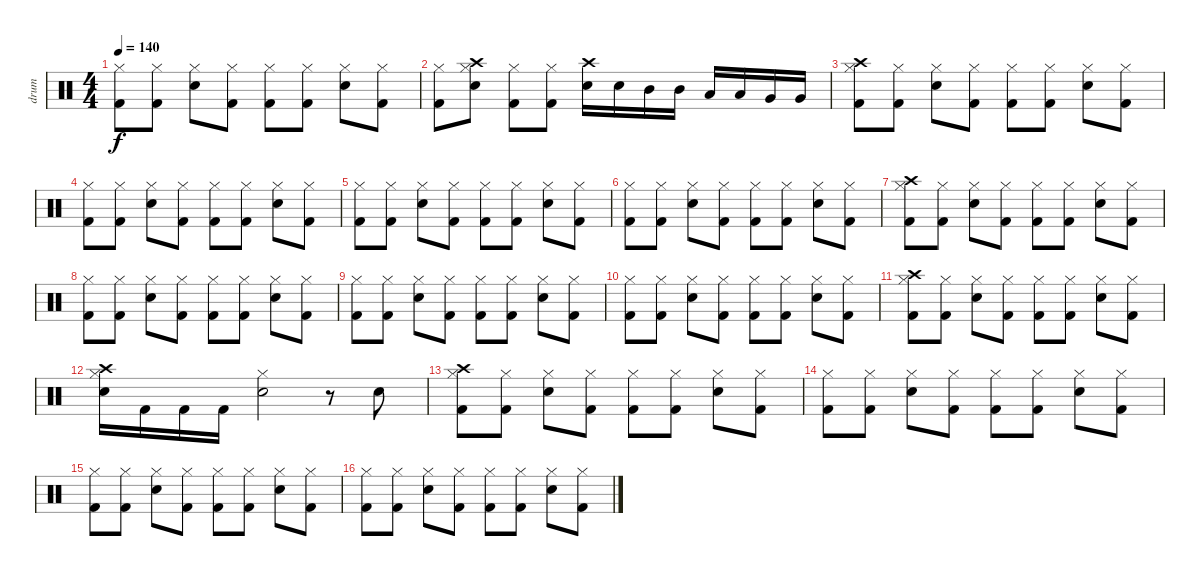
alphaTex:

\track ("drum" "drum") {instrument percussion}
\staff {score}
\articulation defaults
\ts (4 4)
\tempo 140
\clef neutral
\ks c
("Hi-Hat (closed)" "Kick (hit) 2").8{dy f} ("Hi-Hat (closed)" "Kick (hit) 2").8 ("Hi-Hat (closed)" "Electric Snare (hit)").8 ("Hi-Hat (closed)" "Kick (hit) 2").8 ("Hi-Hat (closed)" "Kick (hit) 2").8 ("Hi-Hat (closed)" "Kick (hit) 2").8 ("Hi-Hat (closed)" "Electric Snare (hit)").8 ("Hi-Hat (closed)" "Kick (hit) 2").8 |
("Hi-Hat (closed)" "Kick (hit) 2").8 ("Crash high (hit)" "Hi-Hat (closed)" "Electric Snare (hit)").8 ("Hi-Hat (closed)" "Kick (hit) 2").8 ("Hi-Hat (closed)" "Kick (hit) 2").8 ("Crash high (hit)" "Electric Snare (hit)").16 "Electric Snare (hit)".16 "Mid Tom (hit)".16 "Mid Tom (hit)".16 "Low Tom (hit)".16 "Low Tom (hit)".16 "Very Low Tom (hit)".16 "Very Low Tom (hit)".16 |
("Crash high (hit)" "Hi-Hat (closed)" "Kick (hit) 2").8 ("Hi-Hat (closed)" "Kick (hit) 2").8 ("Hi-Hat (closed)" "Electric Snare (hit)").8 ("Hi-Hat (closed)" "Kick (hit) 2").8 ("Hi-Hat (closed)" "Kick (hit) 2").8 ("Hi-Hat (closed)" "Kick (hit) 2").8 ("Hi-Hat (closed)" "Electric Snare (hit)").8 ("Hi-Hat (closed)" "Kick (hit) 2").8 |
("Hi-Hat (closed)" "Kick (hit) 2").8 ("Hi-Hat (closed)" "Kick (hit) 2").8 ("Hi-Hat (closed)" "Electric Snare (hit)").8 ("Hi-Hat (closed)" "Kick (hit) 2").8 ("Hi-Hat (closed)" "Kick (hit) 2").8 ("Hi-Hat (closed)" "Kick (hit) 2").8 ("Hi-Hat (closed)" "Electric Snare (hit)").8 ("Hi-Hat (closed)" "Kick (hit) 2").8 |
("Hi-Hat (closed)" "Kick (hit) 2").8 ("Hi-Hat (closed)" "Kick (hit) 2").8 ("Hi-Hat (closed)" "Electric Snare (hit)").8 ("Hi-Hat (closed)" "Kick (hit) 2").8 ("Hi-Hat (closed)" "Kick (hit) 2").8 ("Hi-Hat (closed)" "Kick (hit) 2").8 ("Hi-Hat (closed)" "Electric Snare (hit)").8 ("Hi-Hat (closed)" "Kick (hit) 2").8 |
("Hi-Hat (closed)" "Kick (hit) 2").8 ("Hi-Hat (closed)" "Kick (hit) 2").8 ("Hi-Hat (closed)" "Electric Snare (hit)").8 ("Hi-Hat (closed)" "Kick (hit) 2").8 ("Hi-Hat (closed)" "Kick (hit) 2").8 ("Hi-Hat (closed)" "Kick (hit) 2").8 ("Hi-Hat (closed)" "Electric Snare (hit)").8 ("Hi-Hat (closed)" "Kick (hit) 2").8 |
("Crash high (hit)" "Hi-Hat (closed)" "Kick (hit) 2").8 ("Hi-Hat (closed)" "Kick (hit) 2").8 ("Hi-Hat (closed)" "Electric Snare (hit)").8 ("Hi-Hat (closed)" "Kick (hit) 2").8 ("Hi-Hat (closed)" "Kick (hit) 2").8 ("Hi-Hat (closed)" "Kick (hit) 2").8 ("Hi-Hat (closed)" "Electric Snare (hit)").8 ("Hi-Hat (closed)" "Kick (hit) 2").8 |
("Hi-Hat (closed)" "Kick (hit) 2").8 ("Hi-Hat (closed)" "Kick (hit) 2").8 ("Hi-Hat (closed)" "Electric Snare (hit)").8 ("Hi-Hat (closed)" "Kick (hit) 2").8 ("Hi-Hat (closed)" "Kick (hit) 2").8 ("Hi-Hat (closed)" "Kick (hit) 2").8 ("Hi-Hat (closed)" "Electric Snare (hit)").8 ("Hi-Hat (closed)" "Kick (hit) 2").8 |
("Hi-Hat (closed)" "Kick (hit) 2").8 ("Hi-Hat (closed)" "Kick (hit) 2").8 ("Hi-Hat (closed)" "Electric Snare (hit)").8 ("Hi-Hat (closed)" "Kick (hit) 2").8 ("Hi-Hat (closed)" "Kick (hit) 2").8 ("Hi-Hat (closed)" "Kick (hit) 2").8 ("Hi-Hat (closed)" "Electric Snare (hit)").8 ("Hi-Hat (closed)" "Kick (hit) 2").8 |
("Hi-Hat (closed)" "Kick (hit) 2").8 ("Hi-Hat (closed)" "Kick (hit) 2").8 ("Hi-Hat (closed)" "Electric Snare (hit)").8 ("Hi-Hat (closed)" "Kick (hit) 2").8 ("Hi-Hat (closed)" "Kick (hit) 2").8 ("Hi-Hat (closed)" "Kick (hit) 2").8 ("Hi-Hat (closed)" "Electric Snare (hit)").8 ("Hi-Hat (closed)" "Kick (hit) 2").8 |
("Crash high (hit)" "Hi-Hat (closed)" "Kick (hit) 2").8 ("Hi-Hat (closed)" "Kick (hit) 2").8 ("Hi-Hat (closed)" "Electric Snare (hit)").8 ("Hi-Hat (closed)" "Kick (hit) 2").8 ("Hi-Hat (closed)" "Kick (hit) 2").8 ("Hi-Hat (closed)" "Kick (hit) 2").8 ("Hi-Hat (closed)" "Electric Snare (hit)").8 ("Hi-Hat (closed)" "Kick (hit) 2").8 |
("Crash high (hit)" "Hi-Hat (closed)" "Electric Snare (hit)").16 "Kick (hit) 2".16 "Kick (hit) 2".16 "Kick (hit) 2".16 ("Hi-Hat (closed)" "Electric Snare (hit)").2 r.8 "Electric Snare (hit)".8 |
("Crash high (hit)" "Hi-Hat (closed)" "Kick (hit) 2").8 ("Hi-Hat (closed)" "Kick (hit) 2").8 ("Hi-Hat (closed)" "Electric Snare (hit)").8 ("Hi-Hat (closed)" "Kick (hit) 2").8 ("Hi-Hat (closed)" "Kick (hit) 2").8 ("Hi-Hat (closed)" "Kick (hit) 2").8 ("Hi-Hat (closed)" "Electric Snare (hit)").8 ("Hi-Hat (closed)" "Kick (hit) 2").8 |
("Hi-Hat (closed)" "Kick (hit) 2").8 ("Hi-Hat (closed)" "Kick (hit) 2").8 ("Hi-Hat (closed)" "Electric Snare (hit)").8 ("Hi-Hat (closed)" "Kick (hit) 2").8 ("Hi-Hat (closed)" "Kick (hit) 2").8 ("Hi-Hat (closed)" "Kick (hit) 2").8 ("Hi-Hat (closed)" "Electric Snare (hit)").8 ("Hi-Hat (closed)" "Kick (hit) 2").8 |
("Hi-Hat (closed)" "Kick (hit) 2").8 ("Hi-Hat (closed)" "Kick (hit) 2").8 ("Hi-Hat (closed)" "Electric Snare (hit)").8 ("Hi-Hat (closed)" "Kick (hit) 2").8 ("Hi-Hat (closed)" "Kick (hit) 2").8 ("Hi-Hat (closed)" "Kick (hit) 2").8 ("Hi-Hat (closed)" "Electric Snare (hit)").8 ("Hi-Hat (closed)" "Kick (hit) 2").8 |
("Hi-Hat (closed)" "Kick (hit) 2").8 ("Hi-Hat (closed)" "Kick (hit) 2").8 ("Hi-Hat (closed)" "Electric Snare (hit)").8 ("Hi-Hat (closed)" "Kick (hit) 2").8 ("Hi-Hat (closed)" "Kick (hit) 2").8 ("Hi-Hat (closed)" "Kick (hit) 2").8 ("Hi-Hat (closed)" "Electric Snare (hit)").8 ("Hi-Hat (closed)" "Kick (hit) 2").8
